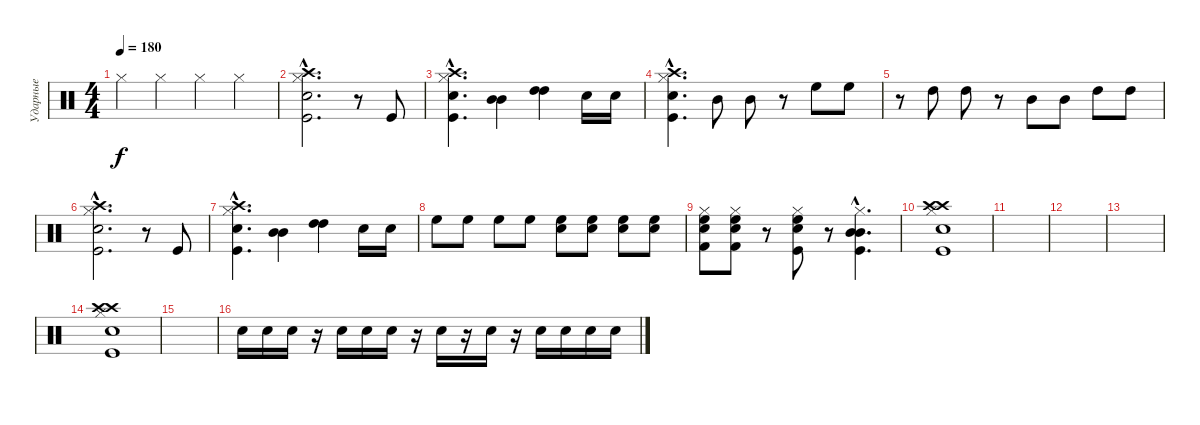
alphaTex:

\track ("Ударные" "Ударные") {instrument percussion}
\staff {score}
\articulation defaults
\ts (4 4)
\tempo 180
\clef neutral
\ks c "Hi-Hat (closed)".4{dy f} "Hi-Hat (closed)".4 "Hi-Hat (closed)".4 "Hi-Hat (closed)".4
|
("Crash high (hit)"{hac} "Hi-Hat (closed)"{hac} "Electric Snare (hit)"{hac} "Kick (hit)"{hac}).2{d} r.8 "Kick (hit)".8 |
("Crash high (hit)"{hac} "Hi-Hat (closed)"{hac} "Electric Snare (hit)"{hac} "Kick (hit)"{hac}).4{d} ("Mid Tom (hit)" "Mid Tom (hit)").4 ("High Tom (hit)" "High Tom (hit)").4 "Electric Snare (hit)".16 "Electric Snare (hit)".16 |
("Crash high (hit)"{hac} "Hi-Hat (closed)"{hac} "Electric Snare (hit)"{hac} "Kick (hit)"{hac}).4{d} "Mid Tom (hit)".8 "Mid Tom (hit)".8 r.8 "High Floor Tom (hit)".8 "High Floor Tom (hit)".8 |
r.8 "High Tom (hit)".8 "High Tom (hit)".8 r.8 "Mid Tom (hit)".8 "Mid Tom (hit)".8 "High Tom (hit)".8 "High Tom (hit)".8 |
("Crash high (hit)"{hac} "Hi-Hat (closed)"{hac} "Electric Snare (hit)"{hac} "Kick (hit)"{hac}).2{d} r.8 "Kick (hit)".8 |
("Crash high (hit)"{hac} "Hi-Hat (closed)"{hac} "Electric Snare (hit)"{hac} "Kick (hit)"{hac}).4{d} ("Mid Tom (hit)" "Mid Tom (hit)").4 ("High Tom (hit)" "High Tom (hit)").4 "Electric Snare (hit)".16 "Electric Snare (hit)".16 |
"High Floor Tom (hit)".8 "High Floor Tom (hit)".8 "High Floor Tom (hit)".8 "High Floor Tom (hit)".8 ("Electric Snare (hit)" "High Floor Tom (hit)").8 ("Electric Snare (hit)" "High Floor Tom (hit)").8 ("Electric Snare (hit)" "High Floor Tom (hit)").8 ("Electric Snare (hit)" "High Floor Tom (hit)").8 |
("Hi-Hat (closed)" "Electric Snare (hit)" "High Floor Tom (hit)" "Kick (hit) 2").8 ("Hi-Hat (closed)" "Electric Snare (hit)" "High Floor Tom (hit)" "Kick (hit) 2").8 r.8 ("Hi-Hat (closed)" "Electric Snare (hit)" "High Floor Tom (hit)" "Kick (hit)").8 r.8 ("Hi-Hat (closed)"{hac} "Mid Tom (hit)"{hac} "Mid Tom (hit)"{hac} "Kick (hit)"{hac}).4{d} |
("Crash high (hit)" "Crash high (hit)" "Hi-Hat (closed)" "Electric Snare (hit)" "Kick (hit)").1 |
|
|
|
("Crash high (hit)" "Crash high (hit)" "Hi-Hat (closed)" "Electric Snare (hit)" "Kick (hit)").1 |
|
"Electric Snare (hit)".16 "Electric Snare (hit)".16 "Electric Snare (hit)".16 r.16 "Electric Snare (hit)".16 "Electric Snare (hit)".16 "Electric Snare (hit)".16 r.16 "Electric Snare (hit)".16 r.16 "Electric Snare (hit)".16 r.16 "Electric Snare (hit)".16 "Electric Snare (hit)".16 "Electric Snare (hit)".16 "Electric Snare (hit)".16
